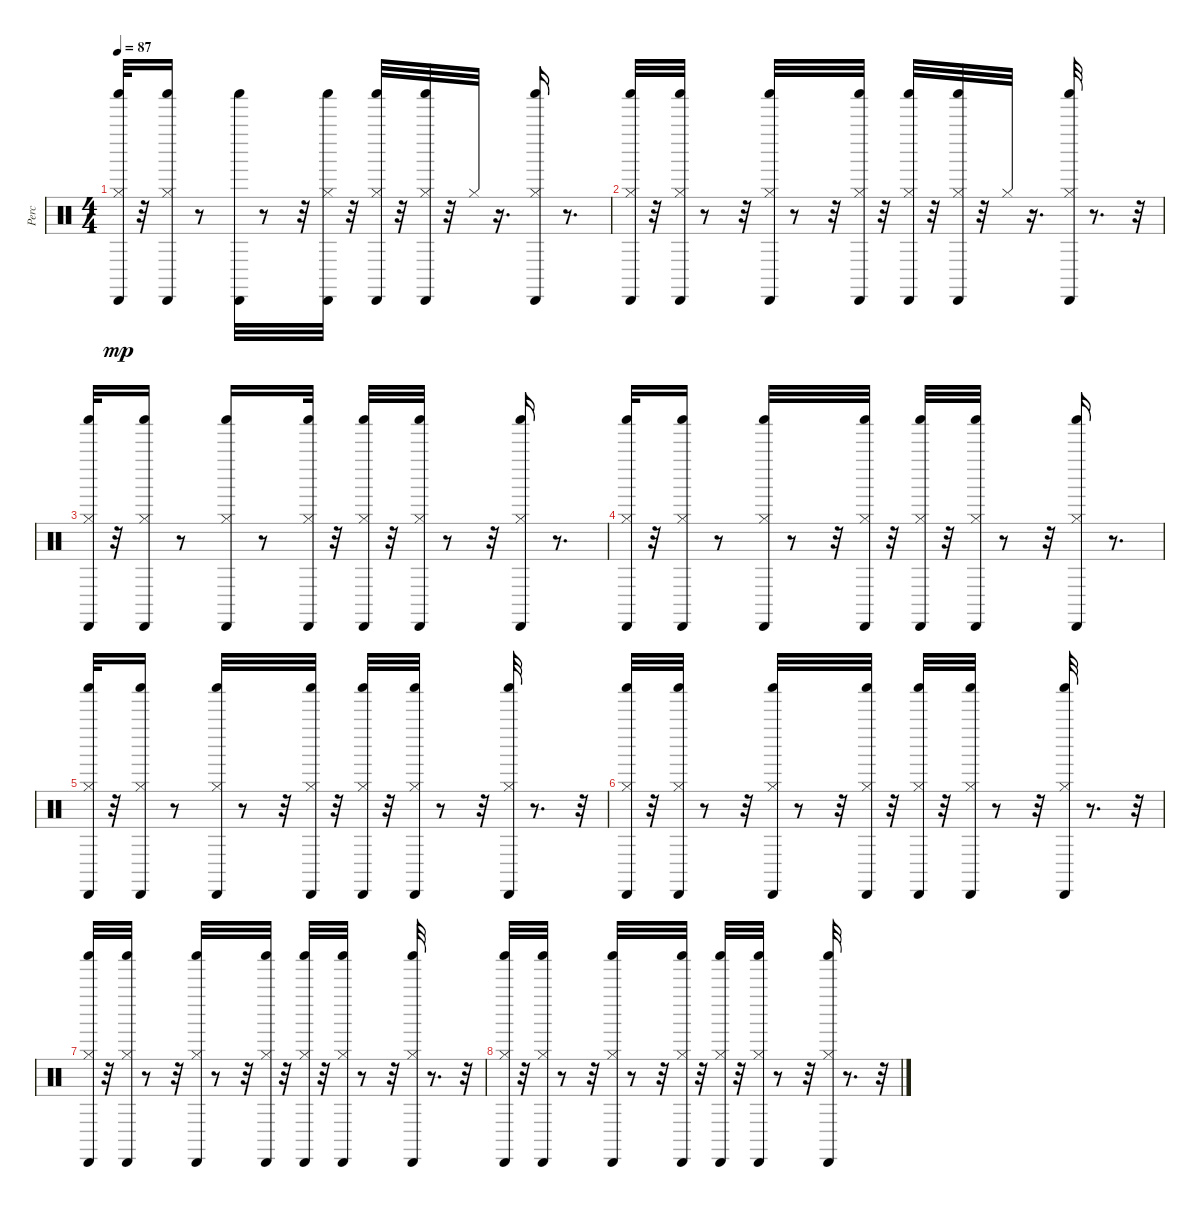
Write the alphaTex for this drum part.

\track ("Perc" "Perc") {instrument percussion}
\staff {score}
\articulation defaults
\ts (4 4)
\tempo 87
\clef neutral
\ks c
("Cabasa (hit)" "Shaker (hit)" "Hi-Hat (closed)").32{dy mp} r.32 ("Shaker (hit)" "Cabasa (hit)" "Hi-Hat (closed)").16 r.8 ("Shaker (hit)" "Cabasa (hit)").32 r.8 r.32 ("Shaker (hit)" "Cabasa (hit)" "Hi-Hat (closed)").32 r.32 ("Shaker (hit)" "Cabasa (hit)" "Hi-Hat (closed)").32 r.32 ("Shaker (hit)" "Cabasa (hit)" "Hi-Hat (closed)").32 r.32 "Hi-Hat (closed)".32 r.16{d} ("Shaker (hit)" "Cabasa (hit)" "Hi-Hat (closed)").16 r.8{d} |
("Cabasa (hit)" "Shaker (hit)" "Hi-Hat (closed)").32 r.32 ("Shaker (hit)" "Cabasa (hit)" "Hi-Hat (closed)").32 r.8 r.32 ("Cabasa (hit)" "Shaker (hit)" "Hi-Hat (closed)").32 r.8 r.32 ("Cabasa (hit)" "Shaker (hit)" "Hi-Hat (closed)").32 r.32 ("Shaker (hit)" "Cabasa (hit)" "Hi-Hat (closed)").32 r.32 ("Shaker (hit)" "Cabasa (hit)" "Hi-Hat (closed)").32 r.32 "Hi-Hat (closed)".32 r.16{d} ("Shaker (hit)" "Cabasa (hit)" "Hi-Hat (closed)").32 r.8{d} r.32 |
("Cabasa (hit)" "Shaker (hit)" "Hi-Hat (closed)").32 r.32 ("Shaker (hit)" "Cabasa (hit)" "Hi-Hat (closed)").16 r.8 ("Shaker (hit)" "Cabasa (hit)" "Hi-Hat (closed)").16 r.8 ("Shaker (hit)" "Cabasa (hit)" "Hi-Hat (closed)").32 r.32 ("Shaker (hit)" "Cabasa (hit)" "Hi-Hat (closed)").32 r.32 ("Shaker (hit)" "Cabasa (hit)" "Hi-Hat (closed)").32 r.8 r.32 ("Shaker (hit)" "Cabasa (hit)" "Hi-Hat (closed)").16 r.8{d} |
("Cabasa (hit)" "Shaker (hit)" "Hi-Hat (closed)").32 r.32 ("Shaker (hit)" "Cabasa (hit)" "Hi-Hat (closed)").16 r.8 ("Cabasa (hit)" "Shaker (hit)" "Hi-Hat (closed)").32 r.8 r.32 ("Cabasa (hit)" "Shaker (hit)" "Hi-Hat (closed)").32 r.32 ("Shaker (hit)" "Cabasa (hit)" "Hi-Hat (closed)").32 r.32 ("Shaker (hit)" "Cabasa (hit)" "Hi-Hat (closed)").32 r.8 r.32 ("Shaker (hit)" "Cabasa (hit)" "Hi-Hat (closed)").16 r.8{d} |
("Cabasa (hit)" "Shaker (hit)" "Hi-Hat (closed)").32 r.32 ("Shaker (hit)" "Cabasa (hit)" "Hi-Hat (closed)").16 r.8 ("Shaker (hit)" "Cabasa (hit)" "Hi-Hat (closed)").32 r.8 r.32 ("Shaker (hit)" "Cabasa (hit)" "Hi-Hat (closed)").32 r.32 ("Shaker (hit)" "Cabasa (hit)" "Hi-Hat (closed)").32 r.32 ("Shaker (hit)" "Cabasa (hit)" "Hi-Hat (closed)").32 r.8 r.32 ("Shaker (hit)" "Cabasa (hit)" "Hi-Hat (closed)").32 r.8{d} r.32 |
("Hi-Hat (closed)" "Cabasa (hit)" "Shaker (hit)").32 r.32 ("Hi-Hat (closed)" "Shaker (hit)" "Cabasa (hit)").32 r.8 r.32 ("Hi-Hat (closed)" "Cabasa (hit)" "Shaker (hit)").32 r.8 r.32 ("Hi-Hat (closed)" "Cabasa (hit)" "Shaker (hit)").32 r.32 ("Hi-Hat (closed)" "Shaker (hit)" "Cabasa (hit)").32 r.32 ("Hi-Hat (closed)" "Shaker (hit)" "Cabasa (hit)").32 r.8 r.32 ("Hi-Hat (closed)" "Shaker (hit)" "Cabasa (hit)").32 r.8{d} r.32 |
("Hi-Hat (closed)" "Cabasa (hit)" "Shaker (hit)").32 r.32 ("Hi-Hat (closed)" "Shaker (hit)" "Cabasa (hit)").32 r.8 r.32 ("Hi-Hat (closed)" "Shaker (hit)" "Cabasa (hit)").32 r.8 r.32 ("Hi-Hat (closed)" "Shaker (hit)" "Cabasa (hit)").32 r.32 ("Hi-Hat (closed)" "Shaker (hit)" "Cabasa (hit)").32 r.32 ("Hi-Hat (closed)" "Shaker (hit)" "Cabasa (hit)").32 r.8 r.32 ("Hi-Hat (closed)" "Shaker (hit)" "Cabasa (hit)").32 r.8{d} r.32 |
("Hi-Hat (closed)" "Cabasa (hit)" "Shaker (hit)").32 r.32 ("Hi-Hat (closed)" "Shaker (hit)" "Cabasa (hit)").32 r.8 r.32 ("Hi-Hat (closed)" "Cabasa (hit)" "Shaker (hit)").32 r.8 r.32 ("Hi-Hat (closed)" "Cabasa (hit)" "Shaker (hit)").32 r.32 ("Hi-Hat (closed)" "Shaker (hit)" "Cabasa (hit)").32 r.32 ("Hi-Hat (closed)" "Shaker (hit)" "Cabasa (hit)").32 r.8 r.32 ("Hi-Hat (closed)" "Shaker (hit)" "Cabasa (hit)").32 r.8{d} r.32
